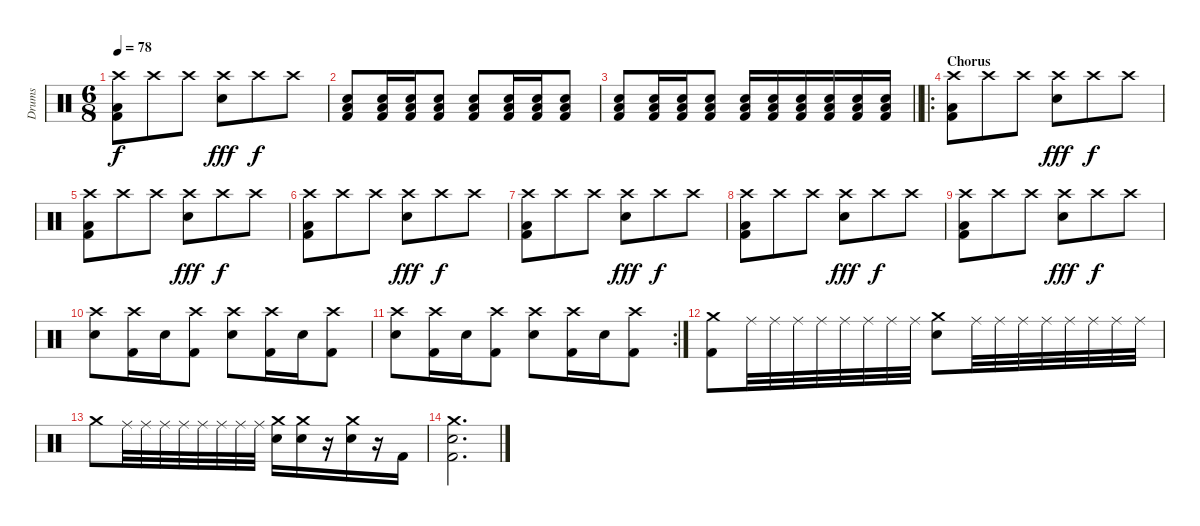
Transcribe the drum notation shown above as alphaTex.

\track ("Drums" "Drums") {instrument percussion}
\staff {score}
\articulation defaults
\ts (6 8)
\tempo 78
\clef neutral
\ks c
("Crash high (hit)" "Low Floor Tom (hit)" "Kick (hit) 2").8{dy f} "Crash high (hit)".8 "Crash high (hit)".8 ("Crash high (hit)" "Snare (hit) 2").8{dy fff} "Crash high (hit)".8{dy f} "Crash high (hit)".8 |
("Low Tom (hit)" "Snare (hit) 2" "Kick (hit) 2").8 ("Low Tom (hit)" "Snare (hit) 2" "Kick (hit) 2").16 ("Low Tom (hit)" "Snare (hit) 2" "Kick (hit) 2").16 ("Low Tom (hit)" "Snare (hit) 2" "Kick (hit) 2").8 ("Low Tom (hit)" "Snare (hit) 2" "Kick (hit) 2").8 ("Low Tom (hit)" "Snare (hit) 2" "Kick (hit) 2").16 ("Low Tom (hit)" "Snare (hit) 2" "Kick (hit) 2").16 ("Low Tom (hit)" "Snare (hit) 2" "Kick (hit) 2").8 |
\barLineRight lightlight
("Low Tom (hit)" "Snare (hit) 2" "Kick (hit) 2").8 ("Low Tom (hit)" "Snare (hit) 2" "Kick (hit) 2").16 ("Low Tom (hit)" "Snare (hit) 2" "Kick (hit) 2").16 ("Low Tom (hit)" "Snare (hit) 2" "Kick (hit) 2").8 ("Low Tom (hit)" "Snare (hit) 2" "Kick (hit) 2").16 ("Low Tom (hit)" "Snare (hit) 2" "Kick (hit) 2").16 ("Low Tom (hit)" "Snare (hit) 2" "Kick (hit) 2").16 ("Low Tom (hit)" "Snare (hit) 2" "Kick (hit) 2").16 ("Low Tom (hit)" "Snare (hit) 2" "Kick (hit) 2").16 ("Low Tom (hit)" "Snare (hit) 2" "Kick (hit) 2").16 |
\ro
\section ("" "Chorus")
("Crash high (hit)" "Low Floor Tom (hit)" "Kick (hit) 2").8 "Crash high (hit)".8 "Crash high (hit)".8 ("Crash high (hit)" "Snare (hit) 2").8{dy fff} "Crash high (hit)".8{dy f} "Crash high (hit)".8 |
("Crash high (hit)" "Low Floor Tom (hit)" "Kick (hit) 2").8 "Crash high (hit)".8 "Crash high (hit)".8 ("Crash high (hit)" "Snare (hit) 2").8{dy fff} "Crash high (hit)".8{dy f} "Crash high (hit)".8 |
("Crash high (hit)" "Low Floor Tom (hit)" "Kick (hit) 2").8 "Crash high (hit)".8 "Crash high (hit)".8 ("Crash high (hit)" "Snare (hit) 2").8{dy fff} "Crash high (hit)".8{dy f} "Crash high (hit)".8 |
("Crash high (hit)" "Low Floor Tom (hit)" "Kick (hit) 2").8 "Crash high (hit)".8 "Crash high (hit)".8 ("Crash high (hit)" "Snare (hit) 2").8{dy fff} "Crash high (hit)".8{dy f} "Crash high (hit)".8 |
("Crash high (hit)" "Low Floor Tom (hit)" "Kick (hit) 2").8 "Crash high (hit)".8 "Crash high (hit)".8 ("Crash high (hit)" "Snare (hit) 2").8{dy fff} "Crash high (hit)".8{dy f} "Crash high (hit)".8 |
("Crash high (hit)" "Low Floor Tom (hit)" "Kick (hit) 2").8 "Crash high (hit)".8 "Crash high (hit)".8 ("Crash high (hit)" "Snare (hit) 2").8{dy fff} "Crash high (hit)".8{dy f} "Crash high (hit)".8 |
("Crash high (hit)" "Snare (hit) 2").8 ("Crash high (hit)" "Kick (hit) 2").16 "Snare (hit) 2".16 ("Crash high (hit)" "Kick (hit) 2").8 ("Crash high (hit)" "Snare (hit) 2").8 ("Crash high (hit)" "Kick (hit) 2").16 "Snare (hit) 2".16 ("Crash high (hit)" "Kick (hit) 2").8 |
\rc 2
("Crash high (hit)" "Snare (hit) 2").8 ("Crash high (hit)" "Kick (hit) 2").16 "Snare (hit) 2".16 ("Crash high (hit)" "Kick (hit) 2").8 ("Crash high (hit)" "Snare (hit) 2").8 ("Crash high (hit)" "Kick (hit) 2").16 "Snare (hit) 2".16 ("Crash high (hit)" "Kick (hit) 2").8 |
("Crash medium (hit)" "Kick (hit) 2").8 "Ride (middle)".32 "Ride (middle)".32 "Ride (middle)".32 "Ride (middle)".32 "Ride (middle)".32 "Ride (middle)".32 "Ride (middle)".32 "Ride (middle)".32 ("Crash medium (hit)" "Snare (hit) 2").8 "Ride (middle)".32 "Ride (middle)".32 "Ride (middle)".32 "Ride (middle)".32 "Ride (middle)".32 "Ride (middle)".32 "Ride (middle)".32 "Ride (middle)".32 |
"Crash medium (hit)".8 "Ride (middle)".32 "Ride (middle)".32 "Ride (middle)".32 "Ride (middle)".32 "Ride (middle)".32 "Ride (middle)".32 "Ride (middle)".32 "Ride (middle)".32 ("Crash medium (hit)" "Snare (hit) 2").16 ("Crash medium (hit)" "Snare (hit) 2").16 r.16 ("Crash medium (hit)" "Snare (hit) 2").16 r.16 "Kick (hit) 2".16 |
("Crash medium (hit)" "Snare (hit) 2" "Kick (hit) 2").2{d}
